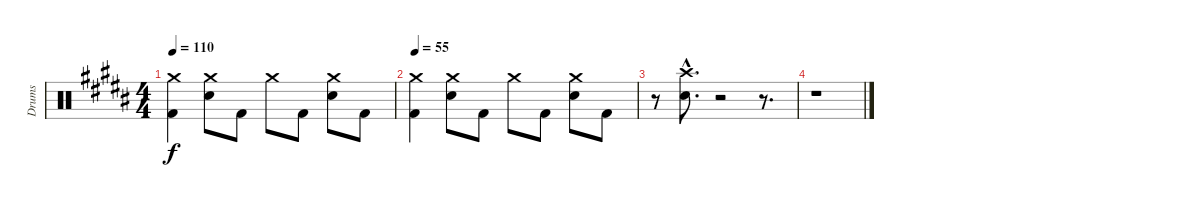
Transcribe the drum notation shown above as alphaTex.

\track ("Drums" "Drums") {instrument percussion}
\staff {score}
\articulation defaults
\ts (4 4)
\tempo 110
\clef neutral
\ks b
("Crash medium (hit)" "Kick (hit) 2").4{dy f} ("Crash medium (hit)" "Electric Snare (hit)").8 "Kick (hit) 2".8 "Crash medium (hit)".8 "Kick (hit) 2".8 ("Crash medium (hit)" "Electric Snare (hit)").8 "Kick (hit) 2".8 |
\tempo 55
("Crash medium (hit)" "Kick (hit) 2").4 ("Crash medium (hit)" "Electric Snare (hit)").8 "Kick (hit) 2".8 "Crash medium (hit)".8 "Kick (hit) 2".8 ("Crash medium (hit)" "Electric Snare (hit)").8 "Kick (hit) 2".8 |
r.8 ("Crash high (hit)"{hac} "Electric Snare (hit)"{hac}).8{d} r.2 r.8{d} |
r.1
